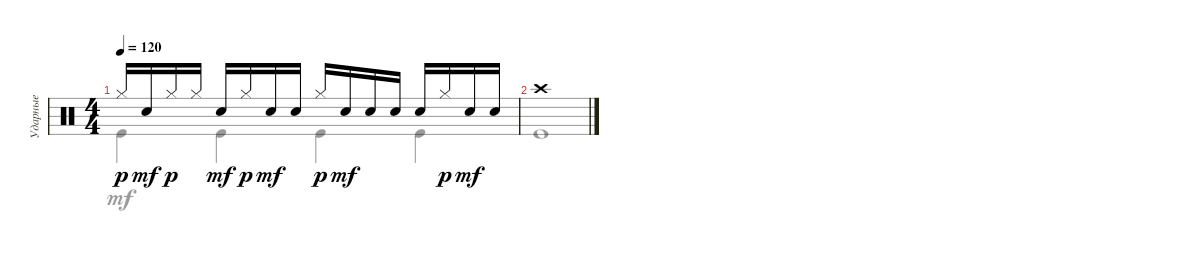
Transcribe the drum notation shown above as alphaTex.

\track ("Ударные" "Ударные") {instrument percussion}
\staff {score}
\articulation defaults
\voice
\ts (4 4)
\tempo 120
\clef neutral
\ks c "Hi-Hat (closed)".16{dy p} "Snare (hit) 2".16{dy mf} "Hi-Hat (closed)".16{dy p} "Hi-Hat (closed)".16 "Snare (hit) 2".16{dy mf} "Hi-Hat (closed)".16{dy p} "Snare (hit) 2".16{dy mf} "Snare (hit) 2".16 "Hi-Hat (closed)".16{dy p} "Snare (hit) 2".16{dy mf} "Snare (hit) 2".16 "Snare (hit) 2".16 "Snare (hit) 2".16 "Hi-Hat (closed)".16{dy p} "Snare (hit) 2".16{dy mf} "Snare (hit) 2".16
|
"Crash high (hit)".1 |
\voice
\clef neutral
\ottava regular
\simile none
\ks c "Kick (hit)".4{dy mf} "Kick (hit)".4 "Kick (hit)".4 "Kick (hit)".4
|
"Kick (hit)".1 |
